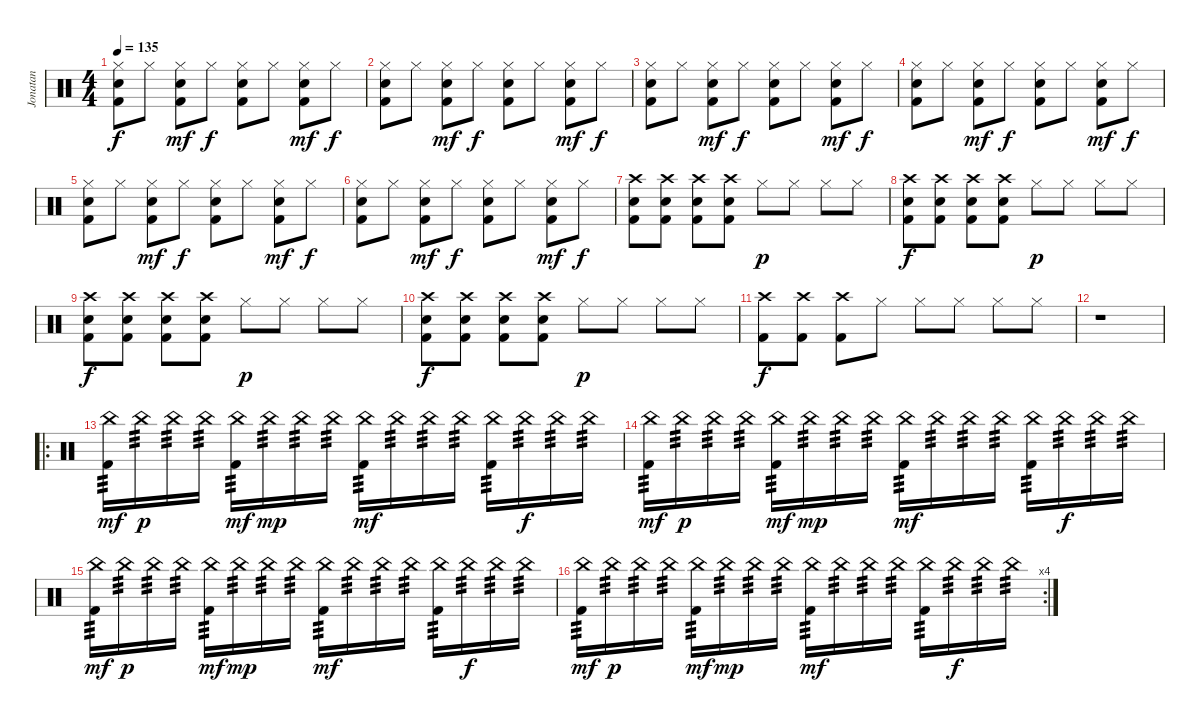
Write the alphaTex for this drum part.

\track ("Jonatan" "Jonatan") {instrument percussion}
\staff {score}
\articulation defaults
\ts (4 4)
\tempo 135
\clef neutral
\ks c
("Hi-Hat (closed)" "Electric Snare (hit)" "Kick (hit) 2").8{dy f} "Hi-Hat (closed)".8 ("Hi-Hat (closed)" "Electric Snare (hit)" "Kick (hit) 2").8{dy mf} "Hi-Hat (closed)".8{dy f} ("Hi-Hat (closed)" "Electric Snare (hit)" "Kick (hit) 2").8 "Hi-Hat (closed)".8 ("Hi-Hat (closed)" "Electric Snare (hit)" "Kick (hit) 2").8{dy mf} "Hi-Hat (closed)".8{dy f} |
("Hi-Hat (closed)" "Electric Snare (hit)" "Kick (hit) 2").8 "Hi-Hat (closed)".8 ("Hi-Hat (closed)" "Electric Snare (hit)" "Kick (hit) 2").8{dy mf} "Hi-Hat (closed)".8{dy f} ("Hi-Hat (closed)" "Electric Snare (hit)" "Kick (hit) 2").8 "Hi-Hat (closed)".8 ("Hi-Hat (closed)" "Electric Snare (hit)" "Kick (hit) 2").8{dy mf} "Hi-Hat (closed)".8{dy f} |
("Hi-Hat (closed)" "Electric Snare (hit)" "Kick (hit) 2").8 "Hi-Hat (closed)".8 ("Hi-Hat (closed)" "Electric Snare (hit)" "Kick (hit) 2").8{dy mf} "Hi-Hat (closed)".8{dy f} ("Hi-Hat (closed)" "Electric Snare (hit)" "Kick (hit) 2").8 "Hi-Hat (closed)".8 ("Hi-Hat (closed)" "Electric Snare (hit)" "Kick (hit) 2").8{dy mf} "Hi-Hat (closed)".8{dy f} |
("Hi-Hat (closed)" "Electric Snare (hit)" "Kick (hit) 2").8 "Hi-Hat (closed)".8 ("Hi-Hat (closed)" "Electric Snare (hit)" "Kick (hit) 2").8{dy mf} "Hi-Hat (closed)".8{dy f} ("Hi-Hat (closed)" "Electric Snare (hit)" "Kick (hit) 2").8 "Hi-Hat (closed)".8 ("Hi-Hat (closed)" "Electric Snare (hit)" "Kick (hit) 2").8{dy mf} "Hi-Hat (closed)".8{dy f} |
("Hi-Hat (closed)" "Electric Snare (hit)" "Kick (hit) 2").8 "Hi-Hat (closed)".8 ("Hi-Hat (closed)" "Electric Snare (hit)" "Kick (hit) 2").8{dy mf} "Hi-Hat (closed)".8{dy f} ("Hi-Hat (closed)" "Electric Snare (hit)" "Kick (hit) 2").8 "Hi-Hat (closed)".8 ("Hi-Hat (closed)" "Electric Snare (hit)" "Kick (hit) 2").8{dy mf} "Hi-Hat (closed)".8{dy f} |
("Hi-Hat (closed)" "Electric Snare (hit)" "Kick (hit) 2").8 "Hi-Hat (closed)".8 ("Hi-Hat (closed)" "Electric Snare (hit)" "Kick (hit) 2").8{dy mf} "Hi-Hat (closed)".8{dy f} ("Hi-Hat (closed)" "Electric Snare (hit)" "Kick (hit) 2").8 "Hi-Hat (closed)".8 ("Hi-Hat (closed)" "Electric Snare (hit)" "Kick (hit) 2").8{dy mf} "Hi-Hat (closed)".8{dy f} |
("Crash high (hit)" "Electric Snare (hit)" "Kick (hit) 2").8 ("Crash high (hit)" "Electric Snare (hit)" "Kick (hit) 2").8 ("Crash high (hit)" "Electric Snare (hit)" "Kick (hit) 2").8 ("Crash high (hit)" "Electric Snare (hit)" "Kick (hit) 2").8 "Hi-Hat (closed)".8{dy p} "Hi-Hat (closed)".8 "Hi-Hat (closed)".8 "Hi-Hat (closed)".8 |
("Crash high (hit)" "Electric Snare (hit)" "Kick (hit) 2").8{dy f} ("Crash high (hit)" "Electric Snare (hit)" "Kick (hit) 2").8 ("Crash high (hit)" "Electric Snare (hit)" "Kick (hit) 2").8 ("Crash high (hit)" "Electric Snare (hit)" "Kick (hit) 2").8 "Hi-Hat (closed)".8{dy p} "Hi-Hat (closed)".8 "Hi-Hat (closed)".8 "Hi-Hat (closed)".8 |
("Crash high (hit)" "Electric Snare (hit)" "Kick (hit) 2").8{dy f} ("Crash high (hit)" "Electric Snare (hit)" "Kick (hit) 2").8 ("Crash high (hit)" "Electric Snare (hit)" "Kick (hit) 2").8 ("Crash high (hit)" "Electric Snare (hit)" "Kick (hit) 2").8 "Hi-Hat (closed)".8{dy p} "Hi-Hat (closed)".8 "Hi-Hat (closed)".8 "Hi-Hat (closed)".8 |
("Crash high (hit)" "Electric Snare (hit)" "Kick (hit) 2").8{dy f} ("Crash high (hit)" "Electric Snare (hit)" "Kick (hit) 2").8 ("Crash high (hit)" "Electric Snare (hit)" "Kick (hit) 2").8 ("Crash high (hit)" "Electric Snare (hit)" "Kick (hit) 2").8 "Hi-Hat (closed)".8{dy p} "Hi-Hat (closed)".8 "Hi-Hat (closed)".8 "Hi-Hat (closed)".8 |
("Crash high (hit)" "Kick (hit) 2").8{dy f} ("Crash high (hit)" "Kick (hit) 2").8 ("Crash high (hit)" "Kick (hit) 2").8 "Hi-Hat (closed)".8 "Hi-Hat (closed)".8 "Hi-Hat (closed)".8 "Hi-Hat (closed)".8 "Hi-Hat (closed)".8 |
r.1 |
\ro
("China (hit)" "Kick (hit) 2").16{tp 3 dy mf} "China (hit)".16{tp 3 dy p} "China (hit)".16{tp 3} "China (hit)".16{tp 3} ("China (hit)" "Kick (hit) 2").16{tp 3 dy mf} "China (hit)".16{tp 3 dy mp} "China (hit)".16{tp 3} "China (hit)".16{tp 3} ("China (hit)" "Kick (hit) 2").16{tp 3 dy mf} "China (hit)".16{tp 3} "China (hit)".16{tp 3} "China (hit)".16{tp 3} ("China (hit)" "Kick (hit) 2").16{tp 3} "China (hit)".16{tp 3 dy f} "China (hit)".16{tp 3} "China (hit)".16{tp 3} |
("China (hit)" "Kick (hit) 2").16{tp 3 dy mf} "China (hit)".16{tp 3 dy p} "China (hit)".16{tp 3} "China (hit)".16{tp 3} ("China (hit)" "Kick (hit) 2").16{tp 3 dy mf} "China (hit)".16{tp 3 dy mp} "China (hit)".16{tp 3} "China (hit)".16{tp 3} ("China (hit)" "Kick (hit) 2").16{tp 3 dy mf} "China (hit)".16{tp 3} "China (hit)".16{tp 3} "China (hit)".16{tp 3} ("China (hit)" "Kick (hit) 2").16{tp 3} "China (hit)".16{tp 3 dy f} "China (hit)".16{tp 3} "China (hit)".16{tp 3} |
("China (hit)" "Kick (hit) 2").16{tp 3 dy mf} "China (hit)".16{tp 3 dy p} "China (hit)".16{tp 3} "China (hit)".16{tp 3} ("China (hit)" "Kick (hit) 2").16{tp 3 dy mf} "China (hit)".16{tp 3 dy mp} "China (hit)".16{tp 3} "China (hit)".16{tp 3} ("China (hit)" "Kick (hit) 2").16{tp 3 dy mf} "China (hit)".16{tp 3} "China (hit)".16{tp 3} "China (hit)".16{tp 3} ("China (hit)" "Kick (hit) 2").16{tp 3} "China (hit)".16{tp 3 dy f} "China (hit)".16{tp 3} "China (hit)".16{tp 3} |
\rc 4
("China (hit)" "Kick (hit) 2").16{tp 3 dy mf} "China (hit)".16{tp 3 dy p} "China (hit)".16{tp 3} "China (hit)".16{tp 3} ("China (hit)" "Kick (hit) 2").16{tp 3 dy mf} "China (hit)".16{tp 3 dy mp} "China (hit)".16{tp 3} "China (hit)".16{tp 3} ("China (hit)" "Kick (hit) 2").16{tp 3 dy mf} "China (hit)".16{tp 3} "China (hit)".16{tp 3} "China (hit)".16{tp 3} ("China (hit)" "Kick (hit) 2").16{tp 3} "China (hit)".16{tp 3 dy f} "China (hit)".16{tp 3} "China (hit)".16{tp 3}
